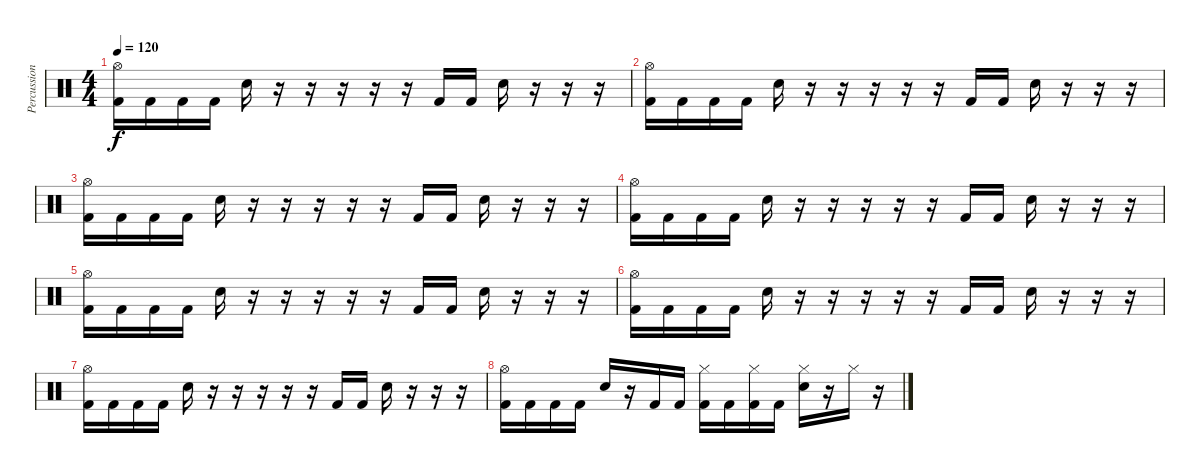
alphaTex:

\track ("Percussions" "Percussion") {instrument percussion}
\staff {score}
\articulation defaults
\ts (4 4)
\tempo 120
\clef neutral
\ks c
("Hi-Hat (open)" "Kick (hit) 2").16{dy f} "Kick (hit) 2".16 "Kick (hit) 2".16 "Kick (hit) 2".16 "Snare (hit) 2".16 r.16 r.16 r.16 r.16 r.16 "Kick (hit) 2".16 "Kick (hit) 2".16 "Snare (hit) 2".16 r.16 r.16 r.16 |
("Hi-Hat (open)" "Kick (hit) 2").16 "Kick (hit) 2".16 "Kick (hit) 2".16 "Kick (hit) 2".16 "Snare (hit) 2".16 r.16 r.16 r.16 r.16 r.16 "Kick (hit) 2".16 "Kick (hit) 2".16 "Snare (hit) 2".16 r.16 r.16 r.16 |
("Hi-Hat (open)" "Kick (hit) 2").16 "Kick (hit) 2".16 "Kick (hit) 2".16 "Kick (hit) 2".16 "Snare (hit) 2".16 r.16 r.16 r.16 r.16 r.16 "Kick (hit) 2".16 "Kick (hit) 2".16 "Snare (hit) 2".16 r.16 r.16 r.16 |
("Hi-Hat (open)" "Kick (hit) 2").16 "Kick (hit) 2".16 "Kick (hit) 2".16 "Kick (hit) 2".16 "Snare (hit) 2".16 r.16 r.16 r.16 r.16 r.16 "Kick (hit) 2".16 "Kick (hit) 2".16 "Snare (hit) 2".16 r.16 r.16 r.16 |
("Hi-Hat (open)" "Kick (hit) 2").16 "Kick (hit) 2".16 "Kick (hit) 2".16 "Kick (hit) 2".16 "Snare (hit) 2".16 r.16 r.16 r.16 r.16 r.16 "Kick (hit) 2".16 "Kick (hit) 2".16 "Snare (hit) 2".16 r.16 r.16 r.16 |
("Hi-Hat (open)" "Kick (hit) 2").16 "Kick (hit) 2".16 "Kick (hit) 2".16 "Kick (hit) 2".16 "Snare (hit) 2".16 r.16 r.16 r.16 r.16 r.16 "Kick (hit) 2".16 "Kick (hit) 2".16 "Snare (hit) 2".16 r.16 r.16 r.16 |
("Hi-Hat (open)" "Kick (hit) 2").16 "Kick (hit) 2".16 "Kick (hit) 2".16 "Kick (hit) 2".16 "Snare (hit) 2".16 r.16 r.16 r.16 r.16 r.16 "Kick (hit) 2".16 "Kick (hit) 2".16 "Snare (hit) 2".16 r.16 r.16 r.16 |
("Hi-Hat (open)" "Kick (hit) 2").16 "Kick (hit) 2".16 "Kick (hit) 2".16 "Kick (hit) 2".16 "Snare (hit) 2".16 r.16 "Kick (hit) 2".16 "Kick (hit) 2".16 ("Hi-Hat (closed)" "Kick (hit) 2").16 "Kick (hit) 2".16 ("Hi-Hat (closed)" "Kick (hit) 2").16 "Kick (hit) 2".16 ("Hi-Hat (closed)" "Snare (hit) 2").16 r.16 "Hi-Hat (closed)".16 r.16
